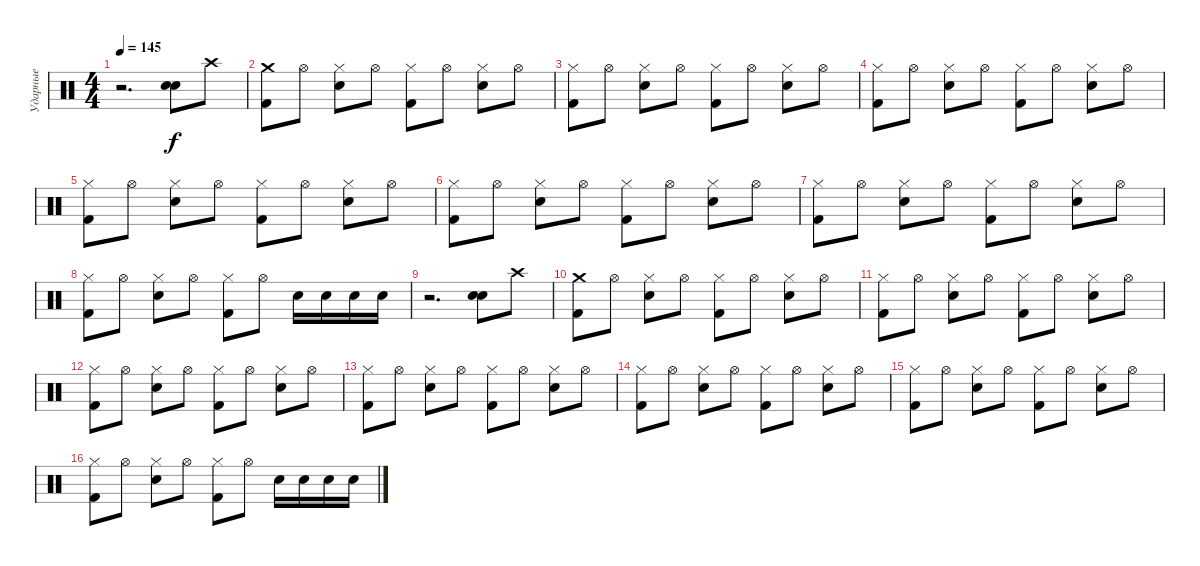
\track ("Ударные" "Ударные") {instrument percussion}
\staff {score}
\articulation defaults
\ts (4 4)
\tempo 145
\clef neutral
\ks c
r.2{d dy f} ("Snare (hit) 2" "Snare (hit) 2").8{bd 240} "Crash high (hit)".8 |
("Kick (hit) 2" "Crash medium (hit)").8 "Hi-Hat (open)".8 ("Hi-Hat (closed)" "Snare (hit) 2").8 "Hi-Hat (open)".8 ("Hi-Hat (closed)" "Kick (hit) 2").8 "Hi-Hat (open)".8 ("Hi-Hat (closed)" "Snare (hit) 2").8 "Hi-Hat (open)".8 |
("Hi-Hat (closed)" "Kick (hit) 2").8 "Hi-Hat (open)".8 ("Hi-Hat (closed)" "Snare (hit) 2").8 "Hi-Hat (open)".8 ("Hi-Hat (closed)" "Kick (hit) 2").8 "Hi-Hat (open)".8 ("Hi-Hat (closed)" "Snare (hit) 2").8 "Hi-Hat (open)".8 |
("Hi-Hat (closed)" "Kick (hit) 2").8 "Hi-Hat (open)".8 ("Hi-Hat (closed)" "Snare (hit) 2").8 "Hi-Hat (open)".8 ("Hi-Hat (closed)" "Kick (hit) 2").8 "Hi-Hat (open)".8 ("Hi-Hat (closed)" "Snare (hit) 2").8 "Hi-Hat (open)".8 |
("Hi-Hat (closed)" "Kick (hit) 2").8 "Hi-Hat (open)".8 ("Hi-Hat (closed)" "Snare (hit) 2").8 "Hi-Hat (open)".8 ("Hi-Hat (closed)" "Kick (hit) 2").8 "Hi-Hat (open)".8 ("Hi-Hat (closed)" "Snare (hit) 2").8 "Hi-Hat (open)".8 |
("Hi-Hat (closed)" "Kick (hit) 2").8 "Hi-Hat (open)".8 ("Hi-Hat (closed)" "Snare (hit) 2").8 "Hi-Hat (open)".8 ("Hi-Hat (closed)" "Kick (hit) 2").8 "Hi-Hat (open)".8 ("Hi-Hat (closed)" "Snare (hit) 2").8 "Hi-Hat (open)".8 |
("Hi-Hat (closed)" "Kick (hit) 2").8 "Hi-Hat (open)".8 ("Hi-Hat (closed)" "Snare (hit) 2").8 "Hi-Hat (open)".8 ("Hi-Hat (closed)" "Kick (hit) 2").8 "Hi-Hat (open)".8 ("Hi-Hat (closed)" "Snare (hit) 2").8 "Hi-Hat (open)".8 |
("Hi-Hat (closed)" "Kick (hit) 2").8 "Hi-Hat (open)".8 ("Hi-Hat (closed)" "Snare (hit) 2").8 "Hi-Hat (open)".8 ("Hi-Hat (closed)" "Kick (hit) 2").8 "Hi-Hat (open)".8 "Snare (hit) 2".16 "Snare (hit) 2".16 "Snare (hit) 2".16 "Snare (hit) 2".16 |
r.2{d} ("Snare (hit) 2" "Snare (hit) 2").8{bd 240} "Crash high (hit)".8 |
("Kick (hit) 2" "Crash medium (hit)").8 "Hi-Hat (open)".8 ("Hi-Hat (closed)" "Snare (hit) 2").8 "Hi-Hat (open)".8 ("Hi-Hat (closed)" "Kick (hit) 2").8 "Hi-Hat (open)".8 ("Hi-Hat (closed)" "Snare (hit) 2").8 "Hi-Hat (open)".8 |
("Hi-Hat (closed)" "Kick (hit) 2").8 "Hi-Hat (open)".8 ("Hi-Hat (closed)" "Snare (hit) 2").8 "Hi-Hat (open)".8 ("Hi-Hat (closed)" "Kick (hit) 2").8 "Hi-Hat (open)".8 ("Hi-Hat (closed)" "Snare (hit) 2").8 "Hi-Hat (open)".8 |
("Hi-Hat (closed)" "Kick (hit) 2").8 "Hi-Hat (open)".8 ("Hi-Hat (closed)" "Snare (hit) 2").8 "Hi-Hat (open)".8 ("Hi-Hat (closed)" "Kick (hit) 2").8 "Hi-Hat (open)".8 ("Hi-Hat (closed)" "Snare (hit) 2").8 "Hi-Hat (open)".8 |
("Hi-Hat (closed)" "Kick (hit) 2").8 "Hi-Hat (open)".8 ("Hi-Hat (closed)" "Snare (hit) 2").8 "Hi-Hat (open)".8 ("Hi-Hat (closed)" "Kick (hit) 2").8 "Hi-Hat (open)".8 ("Hi-Hat (closed)" "Snare (hit) 2").8 "Hi-Hat (open)".8 |
("Hi-Hat (closed)" "Kick (hit) 2").8 "Hi-Hat (open)".8 ("Hi-Hat (closed)" "Snare (hit) 2").8 "Hi-Hat (open)".8 ("Hi-Hat (closed)" "Kick (hit) 2").8 "Hi-Hat (open)".8 ("Hi-Hat (closed)" "Snare (hit) 2").8 "Hi-Hat (open)".8 |
("Hi-Hat (closed)" "Kick (hit) 2").8 "Hi-Hat (open)".8 ("Hi-Hat (closed)" "Snare (hit) 2").8 "Hi-Hat (open)".8 ("Hi-Hat (closed)" "Kick (hit) 2").8 "Hi-Hat (open)".8 ("Hi-Hat (closed)" "Snare (hit) 2").8 "Hi-Hat (open)".8 |
("Hi-Hat (closed)" "Kick (hit) 2").8 "Hi-Hat (open)".8 ("Hi-Hat (closed)" "Snare (hit) 2").8 "Hi-Hat (open)".8 ("Hi-Hat (closed)" "Kick (hit) 2").8 "Hi-Hat (open)".8 "Snare (hit) 2".16 "Snare (hit) 2".16 "Snare (hit) 2".16 "Snare (hit) 2".16
